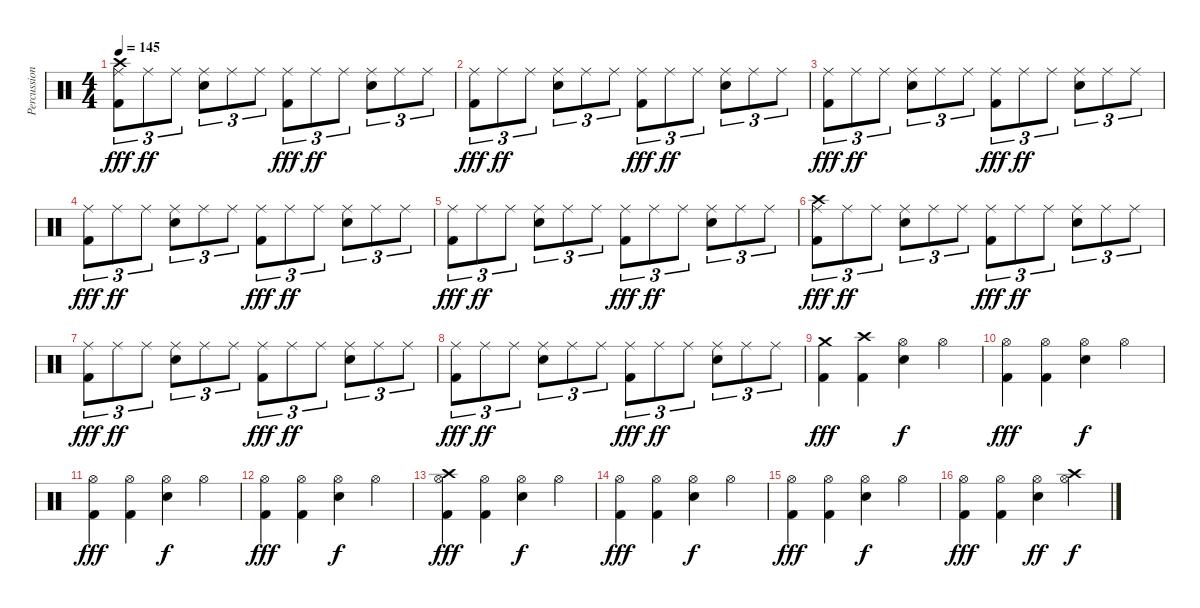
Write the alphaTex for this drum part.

\track ("Percussion" "Percussion") {instrument percussion}
\staff {score}
\articulation defaults
\ts (4 4)
\tempo 145
\clef neutral
\ks c
("Crash high (hit)" "Ride (middle)" "Kick (hit) 2").8{tu (3 2) dy fff} "Ride (middle)".8{tu (3 2) dy ff} "Ride (middle)".8{tu (3 2)} ("Ride (middle)" "Snare (hit) 2").8{tu (3 2)} "Ride (middle)".8{tu (3 2)} "Ride (middle)".8{tu (3 2)} ("Ride (middle)" "Kick (hit) 2").8{tu (3 2) dy fff} "Ride (middle)".8{tu (3 2) dy ff} "Ride (middle)".8{tu (3 2)} ("Ride (middle)" "Snare (hit) 2").8{tu (3 2)} "Ride (middle)".8{tu (3 2)} "Ride (middle)".8{tu (3 2)} |
("Ride (middle)" "Kick (hit) 2").8{tu (3 2) dy fff} "Ride (middle)".8{tu (3 2) dy ff} "Ride (middle)".8{tu (3 2)} ("Ride (middle)" "Snare (hit) 2").8{tu (3 2)} "Ride (middle)".8{tu (3 2)} "Ride (middle)".8{tu (3 2)} ("Ride (middle)" "Kick (hit) 2").8{tu (3 2) dy fff} "Ride (middle)".8{tu (3 2) dy ff} "Ride (middle)".8{tu (3 2)} ("Ride (middle)" "Snare (hit) 2").8{tu (3 2)} "Ride (middle)".8{tu (3 2)} "Ride (middle)".8{tu (3 2)} |
("Ride (middle)" "Kick (hit) 2").8{tu (3 2) dy fff} "Ride (middle)".8{tu (3 2) dy ff} "Ride (middle)".8{tu (3 2)} ("Ride (middle)" "Snare (hit) 2").8{tu (3 2)} "Ride (middle)".8{tu (3 2)} "Ride (middle)".8{tu (3 2)} ("Ride (middle)" "Kick (hit) 2").8{tu (3 2) dy fff} "Ride (middle)".8{tu (3 2) dy ff} "Ride (middle)".8{tu (3 2)} ("Ride (middle)" "Snare (hit) 2").8{tu (3 2)} "Ride (middle)".8{tu (3 2)} "Ride (middle)".8{tu (3 2)} |
("Ride (middle)" "Kick (hit) 2").8{tu (3 2) dy fff} "Ride (middle)".8{tu (3 2) dy ff} "Ride (middle)".8{tu (3 2)} ("Ride (middle)" "Snare (hit) 2").8{tu (3 2)} "Ride (middle)".8{tu (3 2)} "Ride (middle)".8{tu (3 2)} ("Ride (middle)" "Kick (hit) 2").8{tu (3 2) dy fff} "Ride (middle)".8{tu (3 2) dy ff} "Ride (middle)".8{tu (3 2)} ("Ride (middle)" "Snare (hit) 2").8{tu (3 2)} "Ride (middle)".8{tu (3 2)} "Ride (middle)".8{tu (3 2)} |
("Ride (middle)" "Kick (hit) 2").8{tu (3 2) dy fff} "Ride (middle)".8{tu (3 2) dy ff} "Ride (middle)".8{tu (3 2)} ("Ride (middle)" "Snare (hit) 2").8{tu (3 2)} "Ride (middle)".8{tu (3 2)} "Ride (middle)".8{tu (3 2)} ("Ride (middle)" "Kick (hit) 2").8{tu (3 2) dy fff} "Ride (middle)".8{tu (3 2) dy ff} "Ride (middle)".8{tu (3 2)} ("Ride (middle)" "Snare (hit) 2").8{tu (3 2)} "Ride (middle)".8{tu (3 2)} "Ride (middle)".8{tu (3 2)} |
("Crash high (hit)" "Ride (middle)" "Kick (hit) 2").8{tu (3 2) dy fff} "Ride (middle)".8{tu (3 2) dy ff} "Ride (middle)".8{tu (3 2)} ("Ride (middle)" "Snare (hit) 2").8{tu (3 2)} "Ride (middle)".8{tu (3 2)} "Ride (middle)".8{tu (3 2)} ("Ride (middle)" "Kick (hit) 2").8{tu (3 2) dy fff} "Ride (middle)".8{tu (3 2) dy ff} "Ride (middle)".8{tu (3 2)} ("Ride (middle)" "Snare (hit) 2").8{tu (3 2)} "Ride (middle)".8{tu (3 2)} "Ride (middle)".8{tu (3 2)} |
("Ride (middle)" "Kick (hit) 2").8{tu (3 2) dy fff} "Ride (middle)".8{tu (3 2) dy ff} "Ride (middle)".8{tu (3 2)} ("Ride (middle)" "Snare (hit) 2").8{tu (3 2)} "Ride (middle)".8{tu (3 2)} "Ride (middle)".8{tu (3 2)} ("Ride (middle)" "Kick (hit) 2").8{tu (3 2) dy fff} "Ride (middle)".8{tu (3 2) dy ff} "Ride (middle)".8{tu (3 2)} ("Ride (middle)" "Snare (hit) 2").8{tu (3 2)} "Ride (middle)".8{tu (3 2)} "Ride (middle)".8{tu (3 2)} |
("Ride (middle)" "Kick (hit) 2").8{tu (3 2) dy fff} "Ride (middle)".8{tu (3 2) dy ff} "Ride (middle)".8{tu (3 2)} ("Ride (middle)" "Snare (hit) 2").8{tu (3 2)} "Ride (middle)".8{tu (3 2)} "Ride (middle)".8{tu (3 2)} ("Ride (middle)" "Kick (hit) 2").8{tu (3 2) dy fff} "Ride (middle)".8{tu (3 2) dy ff} "Ride (middle)".8{tu (3 2)} ("Ride (middle)" "Snare (hit) 2").8{tu (3 2)} "Ride (middle)".8{tu (3 2)} "Ride (middle)".8{tu (3 2)} |
("Crash medium (hit)" "Kick (hit) 2").4{dy fff} ("Crash high (hit)" "Kick (hit) 2").4 ("Hi-Hat (open)" "Snare (hit) 2").4{dy f} "Hi-Hat (open)".4 |
("Hi-Hat (open)" "Kick (hit) 2").4{dy fff} ("Hi-Hat (open)" "Kick (hit) 2").4 ("Hi-Hat (open)" "Snare (hit) 2").4{dy f} "Hi-Hat (open)".4 |
("Hi-Hat (open)" "Kick (hit) 2").4{dy fff} ("Hi-Hat (open)" "Kick (hit) 2").4 ("Hi-Hat (open)" "Snare (hit) 2").4{dy f} "Hi-Hat (open)".4 |
("Hi-Hat (open)" "Kick (hit) 2").4{dy fff} ("Hi-Hat (open)" "Kick (hit) 2").4 ("Hi-Hat (open)" "Snare (hit) 2").4{dy f} "Hi-Hat (open)".4 |
("Crash high (hit)" "Hi-Hat (open)" "Kick (hit) 2").4{dy fff} ("Hi-Hat (open)" "Kick (hit) 2").4 ("Hi-Hat (open)" "Snare (hit) 2").4{dy f} "Hi-Hat (open)".4 |
("Hi-Hat (open)" "Kick (hit) 2").4{dy fff} ("Hi-Hat (open)" "Kick (hit) 2").4 ("Hi-Hat (open)" "Snare (hit) 2").4{dy f} "Hi-Hat (open)".4 |
("Hi-Hat (open)" "Kick (hit) 2").4{dy fff} ("Hi-Hat (open)" "Kick (hit) 2").4 ("Hi-Hat (open)" "Snare (hit) 2").4{dy f} "Hi-Hat (open)".4 |
("Hi-Hat (open)" "Kick (hit) 2").4{dy fff} ("Hi-Hat (open)" "Kick (hit) 2").4 ("Hi-Hat (open)" "Snare (hit) 2").4{dy ff} ("Crash high (hit)" "Hi-Hat (open)").4{dy f}
